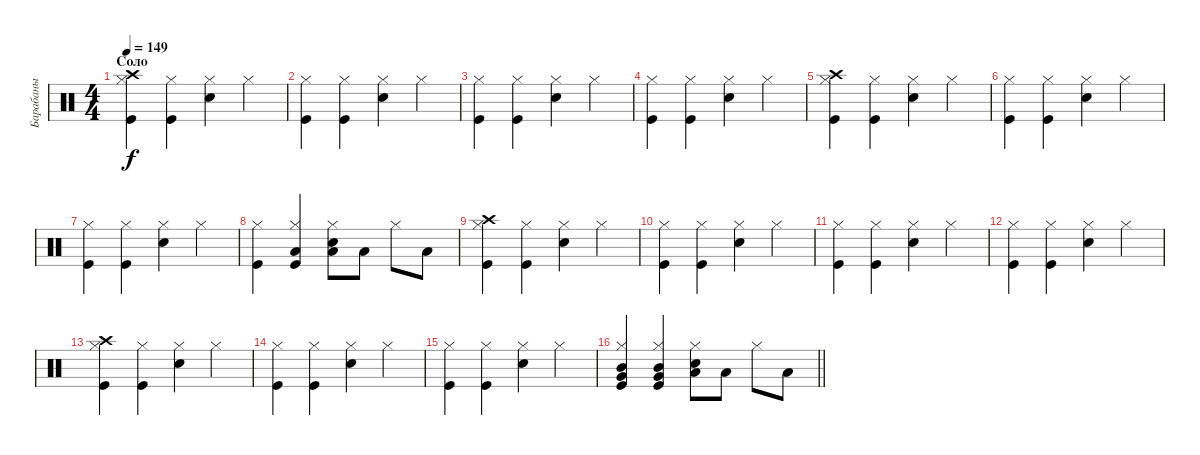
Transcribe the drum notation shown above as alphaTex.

\track ("Барабаны" "Барабаны") {instrument percussion}
\staff {score}
\articulation defaults
\ts (4 4)
\section ("" "Соло")
\tempo 149
\clef neutral
\ks c
("Kick (hit)" "Hi-Hat (closed)" "Crash high (hit)").4{dy f} ("Kick (hit)" "Hi-Hat (closed)").4 ("Snare (hit) 2" "Hi-Hat (closed)").4 "Hi-Hat (closed)".4 |
("Kick (hit)" "Hi-Hat (closed)").4 ("Kick (hit)" "Hi-Hat (closed)").4 ("Snare (hit) 2" "Hi-Hat (closed)").4 "Hi-Hat (closed)".4 |
("Kick (hit)" "Hi-Hat (closed)").4 ("Kick (hit)" "Hi-Hat (closed)").4 ("Snare (hit) 2" "Hi-Hat (closed)").4 "Hi-Hat (closed)".4 |
("Kick (hit)" "Hi-Hat (closed)").4 ("Kick (hit)" "Hi-Hat (closed)").4 ("Snare (hit) 2" "Hi-Hat (closed)").4 "Hi-Hat (closed)".4 |
("Kick (hit)" "Hi-Hat (closed)" "Crash high (hit)").4 ("Kick (hit)" "Hi-Hat (closed)").4 ("Snare (hit) 2" "Hi-Hat (closed)").4 "Hi-Hat (closed)".4 |
("Kick (hit)" "Hi-Hat (closed)").4 ("Kick (hit)" "Hi-Hat (closed)").4 ("Snare (hit) 2" "Hi-Hat (closed)").4 "Hi-Hat (closed)".4 |
("Kick (hit)" "Hi-Hat (closed)").4 ("Kick (hit)" "Hi-Hat (closed)").4 ("Snare (hit) 2" "Hi-Hat (closed)").4 "Hi-Hat (closed)".4 |
("Kick (hit)" "Hi-Hat (closed)").4 ("Kick (hit)" "Hi-Hat (closed)" "Low Tom (hit)").4 ("Snare (hit) 2" "Hi-Hat (closed)" "Low Tom (hit)").8 "Low Tom (hit)".8 "Hi-Hat (closed)".8 "Low Tom (hit)".8 |
("Kick (hit)" "Hi-Hat (closed)" "Crash high (hit)").4 ("Kick (hit)" "Hi-Hat (closed)").4 ("Snare (hit) 2" "Hi-Hat (closed)").4 "Hi-Hat (closed)".4 |
("Kick (hit)" "Hi-Hat (closed)").4 ("Kick (hit)" "Hi-Hat (closed)").4 ("Snare (hit) 2" "Hi-Hat (closed)").4 "Hi-Hat (closed)".4 |
("Kick (hit)" "Hi-Hat (closed)").4 ("Kick (hit)" "Hi-Hat (closed)").4 ("Snare (hit) 2" "Hi-Hat (closed)").4 "Hi-Hat (closed)".4 |
("Kick (hit)" "Hi-Hat (closed)").4 ("Kick (hit)" "Hi-Hat (closed)").4 ("Snare (hit) 2" "Hi-Hat (closed)").4 "Hi-Hat (closed)".4 |
("Kick (hit)" "Hi-Hat (closed)" "Crash high (hit)").4 ("Kick (hit)" "Hi-Hat (closed)").4 ("Snare (hit) 2" "Hi-Hat (closed)").4 "Hi-Hat (closed)".4 |
("Kick (hit)" "Hi-Hat (closed)").4 ("Kick (hit)" "Hi-Hat (closed)").4 ("Snare (hit) 2" "Hi-Hat (closed)").4 "Hi-Hat (closed)".4 |
("Kick (hit)" "Hi-Hat (closed)").4 ("Kick (hit)" "Hi-Hat (closed)").4 ("Snare (hit) 2" "Hi-Hat (closed)").4 "Hi-Hat (closed)".4 |
\barLineRight lightlight
("Kick (hit)" "Hi-Hat (closed)" "Very Low Tom (hit)" "Mid Tom (hit)").4 ("Kick (hit)" "Hi-Hat (closed)" "Very Low Tom (hit)" "Mid Tom (hit)").4 ("Snare (hit) 2" "Hi-Hat (closed)" "Low Tom (hit)").8 "Low Tom (hit)".8 "Hi-Hat (closed)".8 "Low Tom (hit)".8
